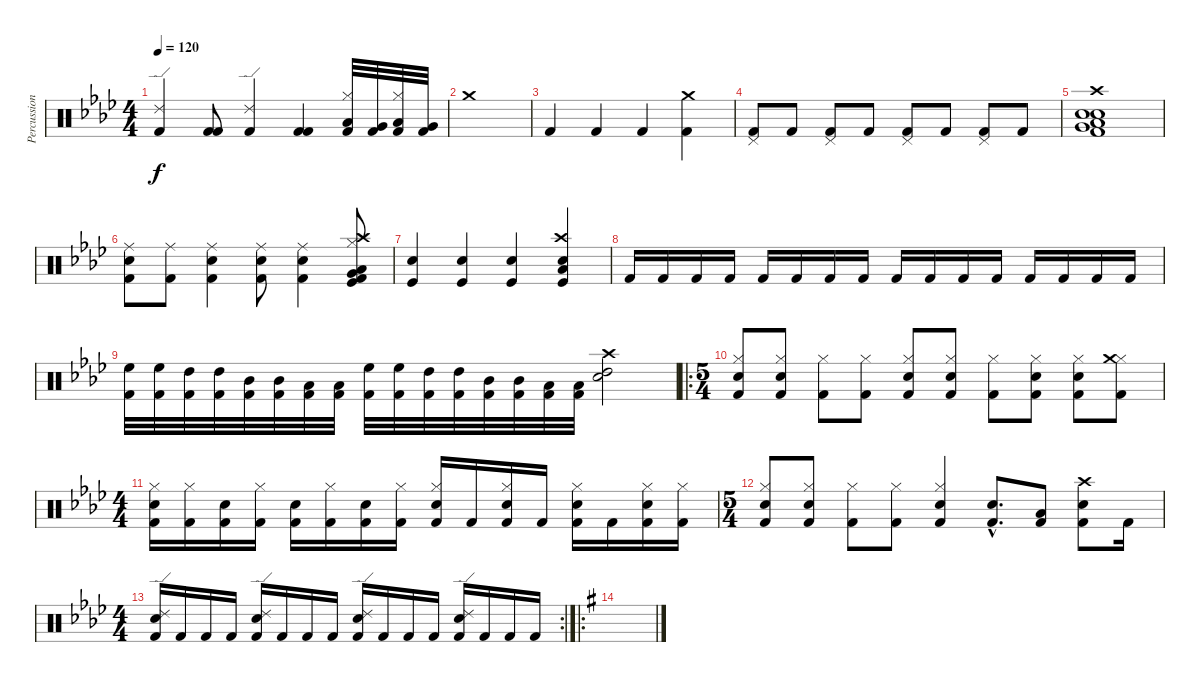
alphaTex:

\track ("Percussion" "Percussion") {instrument percussion}
\staff {score}
\articulation defaults
\ts (4 4)
\tempo 120
\clef neutral
\ks fminor
("Kick (hit) 2" "Ride (edge) 2").4{dy f} ("Kick (hit) 2" "Kick (hit) 2").8 ("Kick (hit) 2" "Ride (edge) 2").4 ("Kick (hit) 2" "Kick (hit) 2").4 ("Kick (hit) 2" "Hi-Hat (closed)" "Low Floor Tom (hit)").32 ("Kick (hit) 2" "Very Low Tom (hit)").32 ("Kick (hit) 2" "Hi-Hat (closed)" "Low Floor Tom (hit)").32 ("Kick (hit) 2" "Very Low Tom (hit)").32 |
"Crash medium (hit)".1 |
"Kick (hit) 2".4 "Kick (hit) 2".4 "Kick (hit) 2".4 ("Kick (hit) 2" "Crash medium (hit)").4 |
("Pedal Hi-Hat (hit)" "Kick (hit) 2").8 "Kick (hit) 2".8 ("Pedal Hi-Hat (hit)" "Kick (hit) 2").8 "Kick (hit) 2".8 ("Pedal Hi-Hat (hit)" "Kick (hit) 2").8 "Kick (hit) 2".8 ("Pedal Hi-Hat (hit)" "Kick (hit) 2").8 "Kick (hit) 2".8 |
("Electric Snare (hit)" "Electric Snare (hit)" "Crash high (hit)" "Kick (hit) 2" "Low Floor Tom (hit)" "Very Low Tom (hit)").1 |
("Kick (hit) 2" "Snare (hit) 2" "Ride (middle)").8 ("Kick (hit) 2" "Ride (middle)").8 ("Kick (hit) 2" "Snare (hit) 2" "Ride (middle)").4 ("Kick (hit) 2" "Snare (hit) 2" "Ride (middle)").8 ("Kick (hit) 2" "Snare (hit) 2" "Ride (middle)").4 ("Very Low Tom (hit)" "Crash high (hit)" "Kick (hit)" "Kick (hit) 2" "Low Floor Tom (hit)" "Hi-Hat (closed)").8 |
("Snare (hit) 2" "Kick (hit)").4 ("Snare (hit) 2" "Kick (hit)").4 ("Snare (hit) 2" "Kick (hit)").4 ("Crash high (hit)" "Low Floor Tom (hit)" "Snare (hit) 2" "Kick (hit)").4 |
"Kick (hit) 2".16 "Kick (hit) 2".16 "Kick (hit) 2".16 "Kick (hit) 2".16 "Kick (hit) 2".16 "Kick (hit) 2".16 "Kick (hit) 2".16 "Kick (hit) 2".16 "Kick (hit) 2".16 "Kick (hit) 2".16 "Kick (hit) 2".16 "Kick (hit) 2".16 "Kick (hit) 2".16 "Kick (hit) 2".16 "Kick (hit) 2".16 "Kick (hit) 2".16 |
("High Floor Tom (hit)" "Kick (hit) 2").32 ("High Floor Tom (hit)" "Kick (hit) 2").32 ("High Tom (hit)" "Kick (hit) 2").32 ("High Tom (hit)" "Kick (hit) 2").32 ("Mid Tom (hit)" "Kick (hit) 2").32 ("Mid Tom (hit)" "Kick (hit) 2").32 ("Low Floor Tom (hit)" "Kick (hit) 2").32 ("Low Floor Tom (hit)" "Kick (hit) 2").32 ("High Floor Tom (hit)" "Kick (hit) 2").32 ("High Floor Tom (hit)" "Kick (hit) 2").32 ("High Tom (hit)" "Kick (hit) 2").32 ("High Tom (hit)" "Kick (hit) 2").32 ("Mid Tom (hit)" "Kick (hit) 2").32 ("Mid Tom (hit)" "Kick (hit) 2").32 ("Low Floor Tom (hit)" "Kick (hit) 2").32 ("Low Floor Tom (hit)" "Kick (hit) 2").32 ("Snare (hit) 2" "High Tom (hit)" "Crash high (hit)").2 |
\ro
\ts (5 4)
("Hi-Hat (closed)" "Electric Snare (hit)" "Kick (hit) 2").8 ("Hi-Hat (closed)" "Electric Snare (hit)" "Kick (hit) 2").8 ("Hi-Hat (closed)" "Kick (hit) 2").8 ("Hi-Hat (closed)" "Kick (hit) 2").8 ("Hi-Hat (closed)" "Electric Snare (hit)" "Kick (hit) 2").8 ("Hi-Hat (closed)" "Electric Snare (hit)" "Kick (hit) 2").8 ("Hi-Hat (closed)" "Kick (hit) 2").8 ("Hi-Hat (closed)" "Electric Snare (hit)" "Kick (hit) 2").8 ("Hi-Hat (closed)" "Electric Snare (hit)" "Kick (hit) 2").8 ("Hi-Hat (closed)" "Crash medium (hit)" "Kick (hit) 2").8 |
\ts (4 4)
("Hi-Hat (closed)" "Electric Snare (hit)" "Kick (hit) 2").16 ("Hi-Hat (closed)" "Kick (hit) 2").16 ("Electric Snare (hit)" "Kick (hit) 2").16 ("Hi-Hat (closed)" "Kick (hit) 2").16 ("Electric Snare (hit)" "Kick (hit) 2").16 ("Hi-Hat (closed)" "Kick (hit) 2").16 ("Electric Snare (hit)" "Kick (hit) 2").16 ("Hi-Hat (closed)" "Kick (hit) 2").16 ("Hi-Hat (closed)" "Electric Snare (hit)" "Kick (hit) 2").16 "Kick (hit) 2".16 ("Hi-Hat (closed)" "Electric Snare (hit)" "Kick (hit) 2").16 "Kick (hit) 2".16 ("Hi-Hat (closed)" "Electric Snare (hit)" "Kick (hit) 2").16 "Kick (hit) 2".16 ("Hi-Hat (closed)" "Electric Snare (hit)" "Kick (hit) 2").16 ("Hi-Hat (closed)" "Kick (hit) 2").16 |
\ts (5 4)
("Hi-Hat (closed)" "Electric Snare (hit)" "Kick (hit) 2").8 ("Hi-Hat (closed)" "Electric Snare (hit)" "Kick (hit) 2").8 ("Hi-Hat (closed)" "Kick (hit) 2").8 ("Hi-Hat (closed)" "Kick (hit) 2").8 ("Hi-Hat (closed)" "Electric Snare (hit)" "Kick (hit) 2").4 ("Electric Snare (hit)"{hac} "Kick (hit) 2"{hac}).8{d} ("Low Floor Tom (hit)" "Kick (hit) 2").8 ("Crash high (hit)" "Electric Snare (hit)" "Kick (hit) 2").8 "Kick (hit) 2".16 |
\rc 2
\ts (4 4)
("Ride (edge) 2" "Electric Snare (hit)" "Kick (hit) 2").16 "Kick (hit) 2".16 "Kick (hit) 2".16 "Kick (hit) 2".16 ("Ride (edge) 2" "Electric Snare (hit)" "Kick (hit) 2").16 "Kick (hit) 2".16 "Kick (hit) 2".16 "Kick (hit) 2".16 ("Ride (edge) 2" "Electric Snare (hit)" "Kick (hit) 2").16 "Kick (hit) 2".16 "Kick (hit) 2".16 "Kick (hit) 2".16 ("Ride (edge) 2" "Electric Snare (hit)" "Kick (hit) 2").16 "Kick (hit) 2".16 "Kick (hit) 2".16 "Kick (hit) 2".16 |
\ro
\ks eminor
